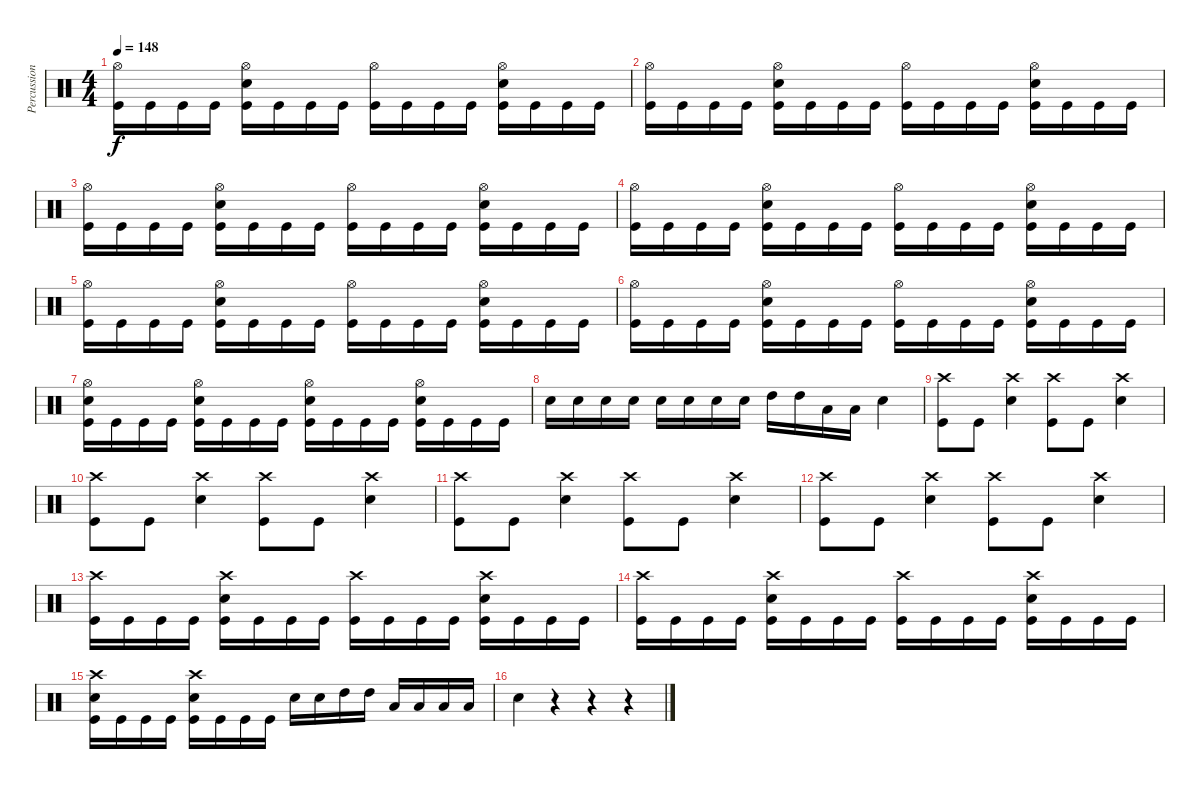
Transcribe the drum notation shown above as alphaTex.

\track ("Percussion" "Percussion") {instrument percussion}
\staff {score}
\articulation defaults
\ts (4 4)
\tempo 148
\clef neutral
\ks c
("Hi-Hat (open)" "Kick (hit)").16{dy f} "Kick (hit)".16 "Kick (hit)".16 "Kick (hit)".16 ("Hi-Hat (open)" "Electric Snare (hit)" "Kick (hit)").16 "Kick (hit)".16 "Kick (hit)".16 "Kick (hit)".16 ("Hi-Hat (open)" "Kick (hit)").16 "Kick (hit)".16 "Kick (hit)".16 "Kick (hit)".16 ("Hi-Hat (open)" "Electric Snare (hit)" "Kick (hit)").16 "Kick (hit)".16 "Kick (hit)".16 "Kick (hit)".16 |
("Hi-Hat (open)" "Kick (hit)").16 "Kick (hit)".16 "Kick (hit)".16 "Kick (hit)".16 ("Hi-Hat (open)" "Electric Snare (hit)" "Kick (hit)").16 "Kick (hit)".16 "Kick (hit)".16 "Kick (hit)".16 ("Hi-Hat (open)" "Kick (hit)").16 "Kick (hit)".16 "Kick (hit)".16 "Kick (hit)".16 ("Hi-Hat (open)" "Electric Snare (hit)" "Kick (hit)").16 "Kick (hit)".16 "Kick (hit)".16 "Kick (hit)".16 |
("Hi-Hat (open)" "Kick (hit)").16 "Kick (hit)".16 "Kick (hit)".16 "Kick (hit)".16 ("Hi-Hat (open)" "Electric Snare (hit)" "Kick (hit)").16 "Kick (hit)".16 "Kick (hit)".16 "Kick (hit)".16 ("Hi-Hat (open)" "Kick (hit)").16 "Kick (hit)".16 "Kick (hit)".16 "Kick (hit)".16 ("Hi-Hat (open)" "Electric Snare (hit)" "Kick (hit)").16 "Kick (hit)".16 "Kick (hit)".16 "Kick (hit)".16 |
("Hi-Hat (open)" "Kick (hit)").16 "Kick (hit)".16 "Kick (hit)".16 "Kick (hit)".16 ("Hi-Hat (open)" "Electric Snare (hit)" "Kick (hit)").16 "Kick (hit)".16 "Kick (hit)".16 "Kick (hit)".16 ("Hi-Hat (open)" "Kick (hit)").16 "Kick (hit)".16 "Kick (hit)".16 "Kick (hit)".16 ("Hi-Hat (open)" "Electric Snare (hit)" "Kick (hit)").16 "Kick (hit)".16 "Kick (hit)".16 "Kick (hit)".16 |
("Hi-Hat (open)" "Kick (hit)").16 "Kick (hit)".16 "Kick (hit)".16 "Kick (hit)".16 ("Hi-Hat (open)" "Electric Snare (hit)" "Kick (hit)").16 "Kick (hit)".16 "Kick (hit)".16 "Kick (hit)".16 ("Hi-Hat (open)" "Kick (hit)").16 "Kick (hit)".16 "Kick (hit)".16 "Kick (hit)".16 ("Hi-Hat (open)" "Electric Snare (hit)" "Kick (hit)").16 "Kick (hit)".16 "Kick (hit)".16 "Kick (hit)".16 |
("Hi-Hat (open)" "Kick (hit)").16 "Kick (hit)".16 "Kick (hit)".16 "Kick (hit)".16 ("Hi-Hat (open)" "Electric Snare (hit)" "Kick (hit)").16 "Kick (hit)".16 "Kick (hit)".16 "Kick (hit)".16 ("Hi-Hat (open)" "Kick (hit)").16 "Kick (hit)".16 "Kick (hit)".16 "Kick (hit)".16 ("Hi-Hat (open)" "Electric Snare (hit)" "Kick (hit)").16 "Kick (hit)".16 "Kick (hit)".16 "Kick (hit)".16 |
("Hi-Hat (open)" "Electric Snare (hit)" "Kick (hit)").16 "Kick (hit)".16 "Kick (hit)".16 "Kick (hit)".16 ("Hi-Hat (open)" "Electric Snare (hit)" "Kick (hit)").16 "Kick (hit)".16 "Kick (hit)".16 "Kick (hit)".16 ("Hi-Hat (open)" "Electric Snare (hit)" "Kick (hit)").16 "Kick (hit)".16 "Kick (hit)".16 "Kick (hit)".16 ("Hi-Hat (open)" "Electric Snare (hit)" "Kick (hit)").16 "Kick (hit)".16 "Kick (hit)".16 "Kick (hit)".16 |
"Electric Snare (hit)".16 "Electric Snare (hit)".16 "Electric Snare (hit)".16 "Electric Snare (hit)".16 "Electric Snare (hit)".16 "Electric Snare (hit)".16 "Electric Snare (hit)".16 "Electric Snare (hit)".16 "High Tom (hit)".16 "High Tom (hit)".16 "Low Floor Tom (hit)".16 "Low Floor Tom (hit)".16 "Electric Snare (hit)".4 |
("Crash high (hit)" "Kick (hit)").8 "Kick (hit)".8 ("Crash high (hit)" "Electric Snare (hit)").4 ("Crash high (hit)" "Kick (hit)").8 "Kick (hit)".8 ("Crash high (hit)" "Electric Snare (hit)").4 |
("Crash high (hit)" "Kick (hit)").8 "Kick (hit)".8 ("Crash high (hit)" "Electric Snare (hit)").4 ("Crash high (hit)" "Kick (hit)").8 "Kick (hit)".8 ("Crash high (hit)" "Electric Snare (hit)").4 |
("Crash high (hit)" "Kick (hit)").8 "Kick (hit)".8 ("Crash high (hit)" "Electric Snare (hit)").4 ("Crash high (hit)" "Kick (hit)").8 "Kick (hit)".8 ("Crash high (hit)" "Electric Snare (hit)").4 |
("Crash high (hit)" "Kick (hit)").8 "Kick (hit)".8 ("Crash high (hit)" "Electric Snare (hit)").4 ("Crash high (hit)" "Kick (hit)").8 "Kick (hit)".8 ("Crash high (hit)" "Electric Snare (hit)").4 |
("Crash high (hit)" "Kick (hit)").16 "Kick (hit)".16 "Kick (hit)".16 "Kick (hit)".16 ("Crash high (hit)" "Electric Snare (hit)" "Kick (hit)").16 "Kick (hit)".16 "Kick (hit)".16 "Kick (hit)".16 ("Crash high (hit)" "Kick (hit)").16 "Kick (hit)".16 "Kick (hit)".16 "Kick (hit)".16 ("Crash high (hit)" "Electric Snare (hit)" "Kick (hit)").16 "Kick (hit)".16 "Kick (hit)".16 "Kick (hit)".16 |
("Crash high (hit)" "Kick (hit)").16 "Kick (hit)".16 "Kick (hit)".16 "Kick (hit)".16 ("Crash high (hit)" "Electric Snare (hit)" "Kick (hit)").16 "Kick (hit)".16 "Kick (hit)".16 "Kick (hit)".16 ("Crash high (hit)" "Kick (hit)").16 "Kick (hit)".16 "Kick (hit)".16 "Kick (hit)".16 ("Crash high (hit)" "Electric Snare (hit)" "Kick (hit)").16 "Kick (hit)".16 "Kick (hit)".16 "Kick (hit)".16 |
("Crash high (hit)" "Electric Snare (hit)" "Kick (hit)").16 "Kick (hit)".16 "Kick (hit)".16 "Kick (hit)".16 ("Crash high (hit)" "Electric Snare (hit)" "Kick (hit)").16 "Kick (hit)".16 "Kick (hit)".16 "Kick (hit)".16 "Electric Snare (hit)".16 "Electric Snare (hit)".16 "High Tom (hit)".16 "High Tom (hit)".16 "Low Floor Tom (hit)".16 "Low Floor Tom (hit)".16 "Low Floor Tom (hit)".16 "Low Floor Tom (hit)".16 |
"Electric Snare (hit)".4 r.4 r.4 r.4
